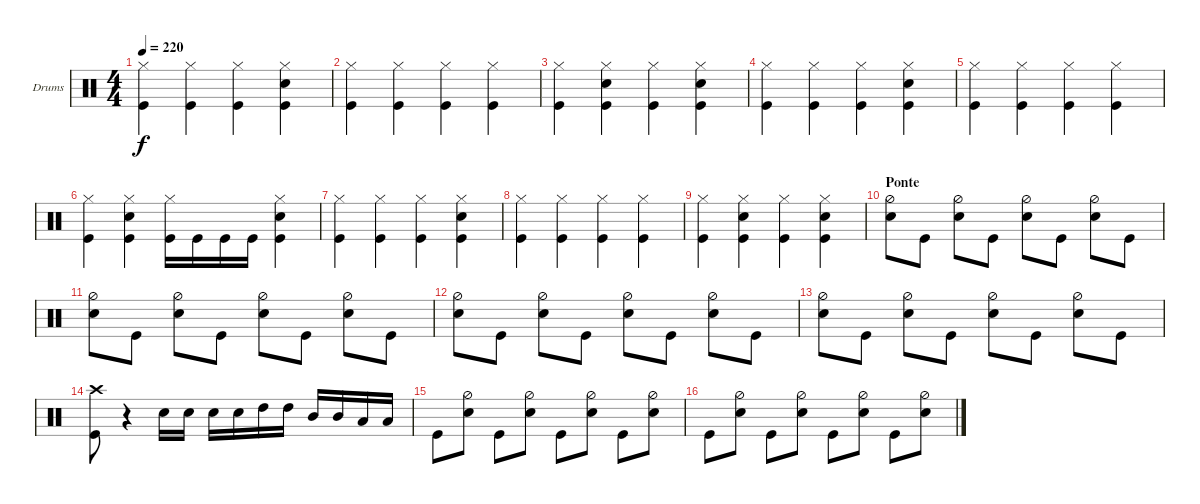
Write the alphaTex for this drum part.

\defaultSystemsLayout 4
\bracketExtendMode groupsimilarinstruments
\firstSystemTrackNameOrientation horizontal
\otherSystemsTrackNameOrientation horizontal
\track ("Drumkit" "Drums") {instrument percussion}
\staff {score}
\articulation defaults
\ts (4 4)
\tempo 220
\clef neutral
\ks c
("Hi-Hat (closed)" "Kick (hit)").4{dy f} ("Hi-Hat (closed)" "Kick (hit)").4 ("Hi-Hat (closed)" "Kick (hit)").4 ("Hi-Hat (closed)" "Snare (hit) 2" "Kick (hit)").4 |
("Hi-Hat (closed)" "Kick (hit)").4 ("Hi-Hat (closed)" "Kick (hit)").4 ("Hi-Hat (closed)" "Kick (hit)").4 ("Hi-Hat (closed)" "Kick (hit)").4 |
("Hi-Hat (closed)" "Kick (hit)").4 ("Hi-Hat (closed)" "Snare (hit) 2" "Kick (hit)").4 ("Hi-Hat (closed)" "Kick (hit)").4 ("Hi-Hat (closed)" "Snare (hit) 2" "Kick (hit)").4 |
("Hi-Hat (closed)" "Kick (hit)").4 ("Hi-Hat (closed)" "Kick (hit)").4 ("Hi-Hat (closed)" "Kick (hit)").4 ("Hi-Hat (closed)" "Snare (hit) 2" "Kick (hit)").4 |
("Hi-Hat (closed)" "Kick (hit)").4 ("Hi-Hat (closed)" "Kick (hit)").4 ("Hi-Hat (closed)" "Kick (hit)").4 ("Hi-Hat (closed)" "Kick (hit)").4 |
("Hi-Hat (closed)" "Kick (hit)").4 ("Hi-Hat (closed)" "Snare (hit) 2" "Kick (hit)").4 ("Hi-Hat (closed)" "Kick (hit)").16 "Kick (hit)".16 "Kick (hit)".16 "Kick (hit)".16 ("Hi-Hat (closed)" "Snare (hit) 2" "Kick (hit)").4 |
("Hi-Hat (closed)" "Kick (hit)").4 ("Hi-Hat (closed)" "Kick (hit)").4 ("Hi-Hat (closed)" "Kick (hit)").4 ("Hi-Hat (closed)" "Snare (hit) 2" "Kick (hit)").4 |
("Hi-Hat (closed)" "Kick (hit)").4 ("Hi-Hat (closed)" "Kick (hit)").4 ("Hi-Hat (closed)" "Kick (hit)").4 ("Hi-Hat (closed)" "Kick (hit)").4 |
("Hi-Hat (closed)" "Kick (hit)").4 ("Hi-Hat (closed)" "Snare (hit) 2" "Kick (hit)").4 ("Hi-Hat (closed)" "Kick (hit)").4 ("Hi-Hat (closed)" "Snare (hit) 2" "Kick (hit)").4 |
\section ("" "Ponte")
("Snare (hit) 2" "Hi-Hat (half)").8 "Kick (hit)".8 ("Snare (hit) 2" "Hi-Hat (half)").8 "Kick (hit)".8 ("Snare (hit) 2" "Hi-Hat (half)").8 "Kick (hit)".8 ("Snare (hit) 2" "Hi-Hat (half)").8 "Kick (hit)".8 |
("Snare (hit) 2" "Hi-Hat (half)").8 "Kick (hit)".8 ("Snare (hit) 2" "Hi-Hat (half)").8 "Kick (hit)".8 ("Snare (hit) 2" "Hi-Hat (half)").8 "Kick (hit)".8 ("Snare (hit) 2" "Hi-Hat (half)").8 "Kick (hit)".8 |
("Snare (hit) 2" "Hi-Hat (half)").8 "Kick (hit)".8 ("Snare (hit) 2" "Hi-Hat (half)").8 "Kick (hit)".8 ("Snare (hit) 2" "Hi-Hat (half)").8 "Kick (hit)".8 ("Snare (hit) 2" "Hi-Hat (half)").8 "Kick (hit)".8 |
("Snare (hit) 2" "Hi-Hat (half)").8 "Kick (hit)".8 ("Snare (hit) 2" "Hi-Hat (half)").8 "Kick (hit)".8 ("Snare (hit) 2" "Hi-Hat (half)").8 "Kick (hit)".8 ("Snare (hit) 2" "Hi-Hat (half)").8 "Kick (hit)".8 |
("Kick (hit)" "Crash high (hit)").8 r.4 "Snare (hit) 2".16 "Snare (hit) 2".16 "Snare (hit) 2".16 "Snare (hit) 2".16 "High Tom (hit)".16 "High Tom (hit)".16 "Mid Tom (hit)".16 "Mid Tom (hit)".16 "Low Tom (hit)".16 "Low Tom (hit)".16 |
"Kick (hit)".8 ("Snare (hit) 2" "Hi-Hat (half)").8 "Kick (hit)".8 ("Snare (hit) 2" "Hi-Hat (half)").8 "Kick (hit)".8 ("Snare (hit) 2" "Hi-Hat (half)").8 "Kick (hit)".8 ("Snare (hit) 2" "Hi-Hat (half)").8 |
"Kick (hit)".8 ("Snare (hit) 2" "Hi-Hat (half)").8 "Kick (hit)".8 ("Snare (hit) 2" "Hi-Hat (half)").8 "Kick (hit)".8 ("Snare (hit) 2" "Hi-Hat (half)").8 "Kick (hit)".8 ("Snare (hit) 2" "Hi-Hat (half)").8
